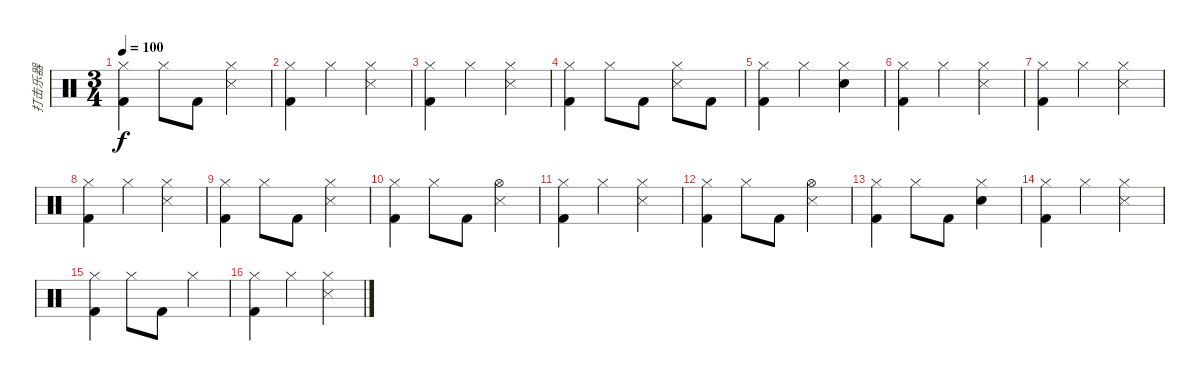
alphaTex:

\track ("打击乐器" "打击乐器") {instrument percussion}
\staff {score}
\articulation defaults
\ts (3 4)
\tempo 100
\clef neutral
\ks c
("Hi-Hat (closed)" "Kick (hit) 2").4{dy f} "Hi-Hat (closed)".8 "Kick (hit) 2".8 ("Hi-Hat (closed)" "Snare (side stick) 3").4 |
("Hi-Hat (closed)" "Kick (hit) 2").4 "Hi-Hat (closed)".4 ("Hi-Hat (closed)" "Snare (side stick) 3").4 |
("Hi-Hat (closed)" "Kick (hit) 2").4 "Hi-Hat (closed)".4 ("Hi-Hat (closed)" "Snare (side stick) 3").4 |
("Hi-Hat (closed)" "Kick (hit) 2").4 "Hi-Hat (closed)".8 "Kick (hit) 2".8 ("Hi-Hat (closed)" "Snare (side stick) 3").8 "Kick (hit) 2".8 |
("Hi-Hat (closed)" "Kick (hit) 2").4 "Hi-Hat (closed)".4 ("Hi-Hat (closed)" "Electric Snare (hit)").4 |
("Hi-Hat (closed)" "Kick (hit) 2").4 "Hi-Hat (closed)".4 ("Hi-Hat (closed)" "Snare (side stick) 3").4 |
("Hi-Hat (closed)" "Kick (hit) 2").4 "Hi-Hat (closed)".4 ("Hi-Hat (closed)" "Snare (side stick) 3").4 |
("Hi-Hat (closed)" "Kick (hit) 2").4 "Hi-Hat (closed)".4 ("Hi-Hat (closed)" "Snare (side stick) 3").4 |
("Hi-Hat (closed)" "Kick (hit) 2").4 "Hi-Hat (closed)".8 "Kick (hit) 2".8 ("Hi-Hat (closed)" "Snare (side stick) 3").4 |
("Hi-Hat (closed)" "Kick (hit) 2").4 "Hi-Hat (closed)".8 "Kick (hit) 2".8 ("Hi-Hat (open)" "Snare (side stick) 3").4 |
("Hi-Hat (closed)" "Kick (hit) 2").4 "Hi-Hat (closed)".4 ("Hi-Hat (closed)" "Snare (side stick) 3").4 |
("Hi-Hat (closed)" "Kick (hit) 2").4 "Hi-Hat (closed)".8 "Kick (hit) 2".8 ("Hi-Hat (open)" "Snare (side stick) 3").4 |
("Hi-Hat (closed)" "Kick (hit) 2").4 "Hi-Hat (closed)".8 "Kick (hit) 2".8 ("Hi-Hat (closed)" "Electric Snare (hit)").4 |
("Hi-Hat (closed)" "Kick (hit) 2").4 "Hi-Hat (closed)".4 ("Hi-Hat (closed)" "Snare (side stick) 3").4 |
("Hi-Hat (closed)" "Kick (hit) 2").4 "Hi-Hat (closed)".8 "Kick (hit) 2".8 "Hi-Hat (closed)".4 |
("Hi-Hat (closed)" "Kick (hit) 2").4 "Hi-Hat (closed)".4 ("Hi-Hat (closed)" "Snare (side stick) 3").4
